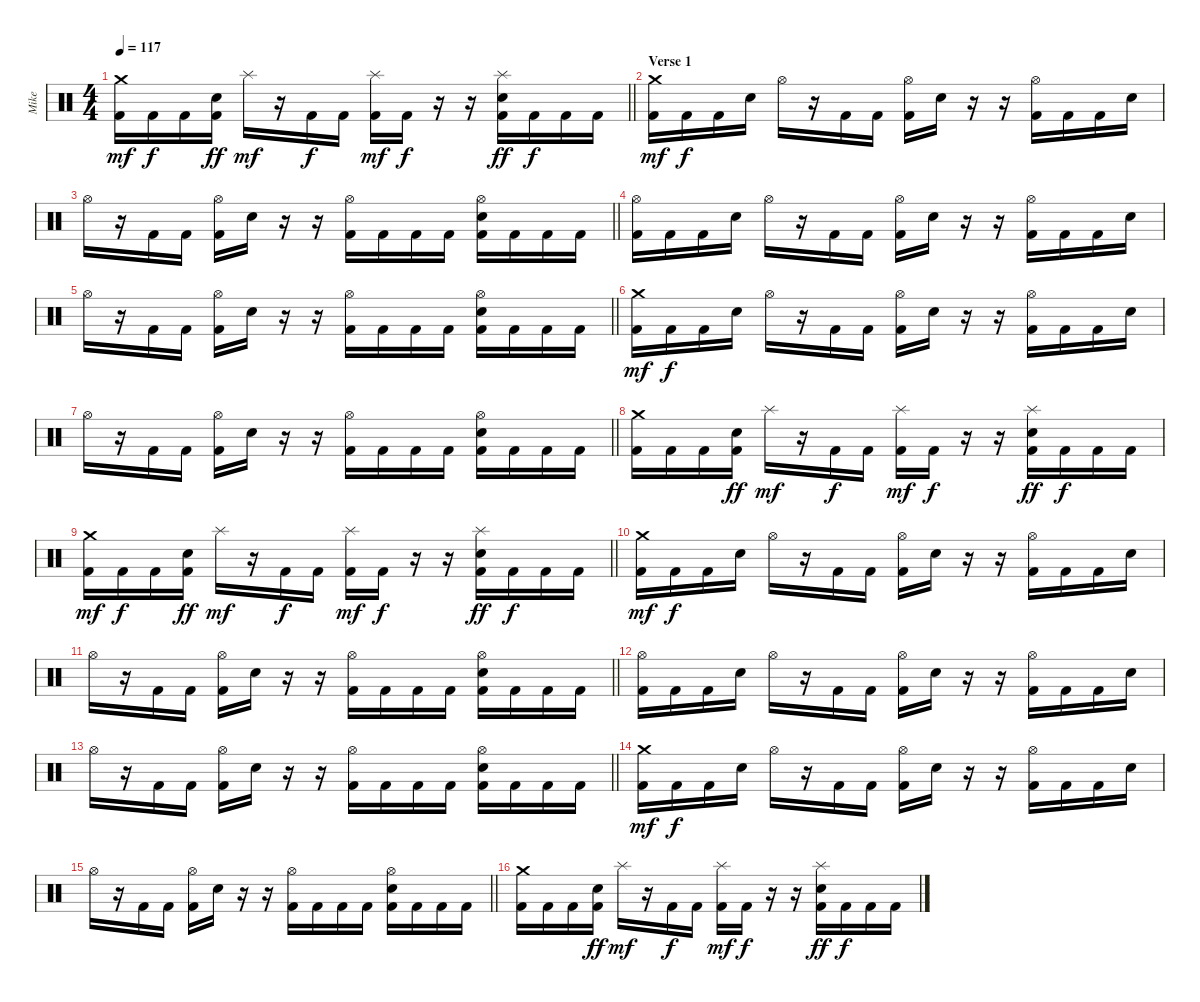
\track ("Mike" "Mike") {instrument percussion}
\staff {score}
\articulation defaults
\ts (4 4)
\tempo 117
\clef neutral
\barLineRight lightlight
\ks c
("Crash medium (hit)" "Kick (hit) 2").16{dy mf} "Kick (hit) 2".16{dy f} "Kick (hit) 2".16 ("Snare (hit) 2" "Kick (hit) 2").16{dy ff} "Splash (hit)".16{dy mf} r.16 "Kick (hit) 2".16{dy f} "Kick (hit) 2".16 ("Splash (hit)" "Kick (hit) 2").16{dy mf} "Kick (hit) 2".16{dy f} r.16 r.16 ("Splash (hit)" "Snare (hit) 2" "Kick (hit) 2").16{dy ff} "Kick (hit) 2".16{dy f} "Kick (hit) 2".16 "Kick (hit) 2".16 |
\section ("" "Verse 1")
("Crash medium (hit)" "Kick (hit) 2").16{dy mf} "Kick (hit) 2".16{dy f} "Kick (hit) 2".16 "Snare (hit) 2".16 "Hi-Hat (open)".16 r.16 "Kick (hit) 2".16 "Kick (hit) 2".16 ("Hi-Hat (open)" "Kick (hit) 2").16 "Snare (hit) 2".16 r.16 r.16 ("Hi-Hat (open)" "Kick (hit) 2").16 "Kick (hit) 2".16 "Kick (hit) 2".16 "Snare (hit) 2".16 |
\barLineRight lightlight "Hi-Hat (open)".16
r.16 "Kick (hit) 2".16 "Kick (hit) 2".16 ("Hi-Hat (open)" "Kick (hit) 2").16 "Snare (hit) 2".16 r.16 r.16 ("Hi-Hat (open)" "Kick (hit) 2").16 "Kick (hit) 2".16 "Kick (hit) 2".16 "Kick (hit) 2".16 ("Hi-Hat (open)" "Snare (hit) 2" "Kick (hit) 2").16 "Kick (hit) 2".16 "Kick (hit) 2".16 "Kick (hit) 2".16 |
("Hi-Hat (open)" "Kick (hit) 2").16 "Kick (hit) 2".16 "Kick (hit) 2".16 "Snare (hit) 2".16 "Hi-Hat (open)".16 r.16 "Kick (hit) 2".16 "Kick (hit) 2".16 ("Hi-Hat (open)" "Kick (hit) 2").16 "Snare (hit) 2".16 r.16 r.16 ("Hi-Hat (open)" "Kick (hit) 2").16 "Kick (hit) 2".16 "Kick (hit) 2".16 "Snare (hit) 2".16 |
\barLineRight lightlight "Hi-Hat (open)".16
r.16 "Kick (hit) 2".16 "Kick (hit) 2".16 ("Hi-Hat (open)" "Kick (hit) 2").16 "Snare (hit) 2".16 r.16 r.16 ("Hi-Hat (open)" "Kick (hit) 2").16 "Kick (hit) 2".16 "Kick (hit) 2".16 "Kick (hit) 2".16 ("Hi-Hat (open)" "Snare (hit) 2" "Kick (hit) 2").16 "Kick (hit) 2".16 "Kick (hit) 2".16 "Kick (hit) 2".16 |
("Crash medium (hit)" "Kick (hit) 2").16{dy mf} "Kick (hit) 2".16{dy f} "Kick (hit) 2".16 "Snare (hit) 2".16 "Hi-Hat (open)".16 r.16 "Kick (hit) 2".16 "Kick (hit) 2".16 ("Hi-Hat (open)" "Kick (hit) 2").16 "Snare (hit) 2".16 r.16 r.16 ("Hi-Hat (open)" "Kick (hit) 2").16 "Kick (hit) 2".16 "Kick (hit) 2".16 "Snare (hit) 2".16 |
\barLineRight lightlight "Hi-Hat (open)".16
r.16 "Kick (hit) 2".16 "Kick (hit) 2".16 ("Hi-Hat (open)" "Kick (hit) 2").16 "Snare (hit) 2".16 r.16 r.16 ("Hi-Hat (open)" "Kick (hit) 2").16 "Kick (hit) 2".16 "Kick (hit) 2".16 "Kick (hit) 2".16 ("Hi-Hat (open)" "Snare (hit) 2" "Kick (hit) 2").16 "Kick (hit) 2".16 "Kick (hit) 2".16 "Kick (hit) 2".16 |
("Crash medium (hit)" "Kick (hit) 2").16 "Kick (hit) 2".16 "Kick (hit) 2".16 ("Snare (hit) 2" "Kick (hit) 2").16{dy ff} "Splash (hit)".16{dy mf} r.16 "Kick (hit) 2".16{dy f} "Kick (hit) 2".16 ("Splash (hit)" "Kick (hit) 2").16{dy mf} "Kick (hit) 2".16{dy f} r.16 r.16 ("Splash (hit)" "Snare (hit) 2" "Kick (hit) 2").16{dy ff} "Kick (hit) 2".16{dy f} "Kick (hit) 2".16 "Kick (hit) 2".16 |
\barLineRight lightlight
("Crash medium (hit)" "Kick (hit) 2").16{dy mf} "Kick (hit) 2".16{dy f} "Kick (hit) 2".16 ("Snare (hit) 2" "Kick (hit) 2").16{dy ff} "Splash (hit)".16{dy mf} r.16 "Kick (hit) 2".16{dy f} "Kick (hit) 2".16 ("Splash (hit)" "Kick (hit) 2").16{dy mf} "Kick (hit) 2".16{dy f} r.16 r.16 ("Splash (hit)" "Snare (hit) 2" "Kick (hit) 2").16{dy ff} "Kick (hit) 2".16{dy f} "Kick (hit) 2".16 "Kick (hit) 2".16 |
("Crash medium (hit)" "Kick (hit) 2").16{dy mf} "Kick (hit) 2".16{dy f} "Kick (hit) 2".16 "Snare (hit) 2".16 "Hi-Hat (open)".16 r.16 "Kick (hit) 2".16 "Kick (hit) 2".16 ("Hi-Hat (open)" "Kick (hit) 2").16 "Snare (hit) 2".16 r.16 r.16 ("Hi-Hat (open)" "Kick (hit) 2").16 "Kick (hit) 2".16 "Kick (hit) 2".16 "Snare (hit) 2".16 |
\barLineRight lightlight "Hi-Hat (open)".16
r.16 "Kick (hit) 2".16 "Kick (hit) 2".16 ("Hi-Hat (open)" "Kick (hit) 2").16 "Snare (hit) 2".16 r.16 r.16 ("Hi-Hat (open)" "Kick (hit) 2").16 "Kick (hit) 2".16 "Kick (hit) 2".16 "Kick (hit) 2".16 ("Hi-Hat (open)" "Snare (hit) 2" "Kick (hit) 2").16 "Kick (hit) 2".16 "Kick (hit) 2".16 "Kick (hit) 2".16 |
("Hi-Hat (open)" "Kick (hit) 2").16 "Kick (hit) 2".16 "Kick (hit) 2".16 "Snare (hit) 2".16 "Hi-Hat (open)".16 r.16 "Kick (hit) 2".16 "Kick (hit) 2".16 ("Hi-Hat (open)" "Kick (hit) 2").16 "Snare (hit) 2".16 r.16 r.16 ("Hi-Hat (open)" "Kick (hit) 2").16 "Kick (hit) 2".16 "Kick (hit) 2".16 "Snare (hit) 2".16 |
\barLineRight lightlight "Hi-Hat (open)".16
r.16 "Kick (hit) 2".16 "Kick (hit) 2".16 ("Hi-Hat (open)" "Kick (hit) 2").16 "Snare (hit) 2".16 r.16 r.16 ("Hi-Hat (open)" "Kick (hit) 2").16 "Kick (hit) 2".16 "Kick (hit) 2".16 "Kick (hit) 2".16 ("Hi-Hat (open)" "Snare (hit) 2" "Kick (hit) 2").16 "Kick (hit) 2".16 "Kick (hit) 2".16 "Kick (hit) 2".16 |
("Crash medium (hit)" "Kick (hit) 2").16{dy mf} "Kick (hit) 2".16{dy f} "Kick (hit) 2".16 "Snare (hit) 2".16 "Hi-Hat (open)".16 r.16 "Kick (hit) 2".16 "Kick (hit) 2".16 ("Hi-Hat (open)" "Kick (hit) 2").16 "Snare (hit) 2".16 r.16 r.16 ("Hi-Hat (open)" "Kick (hit) 2").16 "Kick (hit) 2".16 "Kick (hit) 2".16 "Snare (hit) 2".16 |
\barLineRight lightlight "Hi-Hat (open)".16
r.16 "Kick (hit) 2".16 "Kick (hit) 2".16 ("Hi-Hat (open)" "Kick (hit) 2").16 "Snare (hit) 2".16 r.16 r.16 ("Hi-Hat (open)" "Kick (hit) 2").16 "Kick (hit) 2".16 "Kick (hit) 2".16 "Kick (hit) 2".16 ("Hi-Hat (open)" "Snare (hit) 2" "Kick (hit) 2").16 "Kick (hit) 2".16 "Kick (hit) 2".16 "Kick (hit) 2".16 |
("Crash medium (hit)" "Kick (hit) 2").16 "Kick (hit) 2".16 "Kick (hit) 2".16 ("Snare (hit) 2" "Kick (hit) 2").16{dy ff} "Splash (hit)".16{dy mf} r.16 "Kick (hit) 2".16{dy f} "Kick (hit) 2".16 ("Splash (hit)" "Kick (hit) 2").16{dy mf} "Kick (hit) 2".16{dy f} r.16 r.16 ("Splash (hit)" "Snare (hit) 2" "Kick (hit) 2").16{dy ff} "Kick (hit) 2".16{dy f} "Kick (hit) 2".16 "Kick (hit) 2".16
